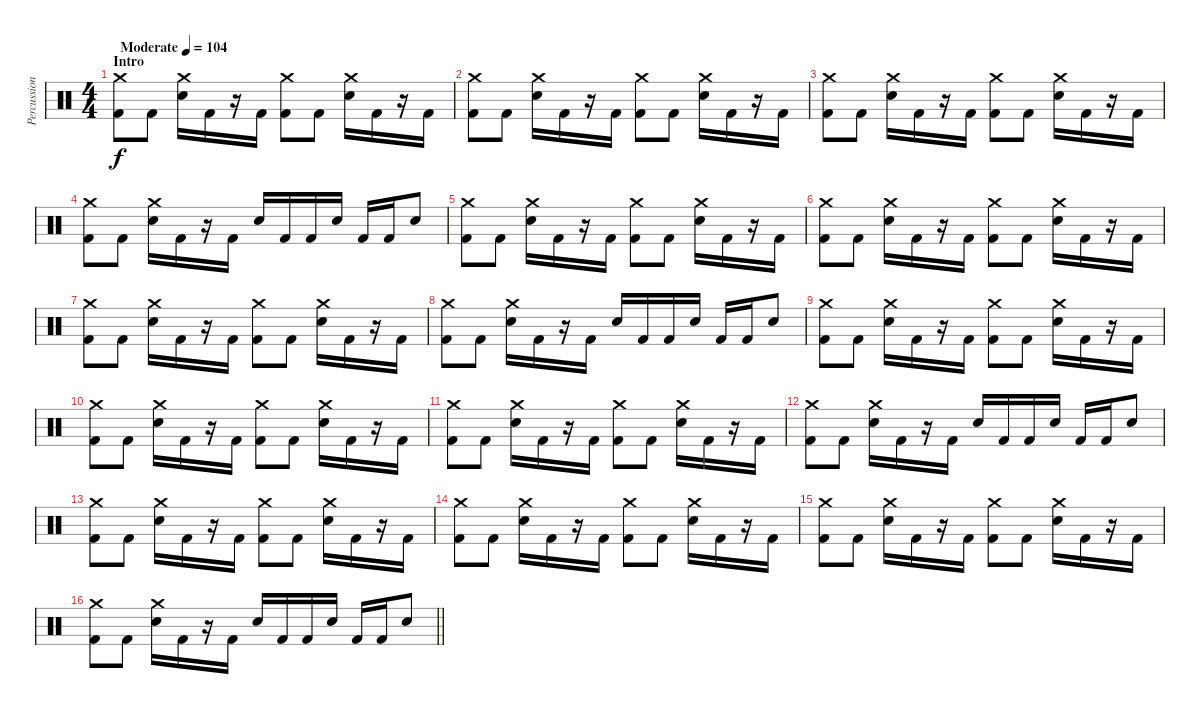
\track ("Percussioni" "Percussion") {instrument percussion}
\staff {score}
\articulation defaults
\ts (4 4)
\section ("" "Intro")
\tempo (104 "Moderate")
\clef neutral
\ks c
("Crash medium (hit)" "Kick (hit) 2").8{dy f} "Kick (hit) 2".8 ("Crash medium (hit)" "Electric Snare (hit)").16 "Kick (hit) 2".16 r.16 "Kick (hit) 2".16 ("Crash medium (hit)" "Kick (hit) 2").8 "Kick (hit) 2".8 ("Crash medium (hit)" "Electric Snare (hit)").16 "Kick (hit) 2".16 r.16 "Kick (hit) 2".16 |
("Crash medium (hit)" "Kick (hit) 2").8 "Kick (hit) 2".8 ("Crash medium (hit)" "Electric Snare (hit)").16 "Kick (hit) 2".16 r.16 "Kick (hit) 2".16 ("Crash medium (hit)" "Kick (hit) 2").8 "Kick (hit) 2".8 ("Crash medium (hit)" "Electric Snare (hit)").16 "Kick (hit) 2".16 r.16 "Kick (hit) 2".16 |
("Crash medium (hit)" "Kick (hit) 2").8 "Kick (hit) 2".8 ("Crash medium (hit)" "Electric Snare (hit)").16 "Kick (hit) 2".16 r.16 "Kick (hit) 2".16 ("Crash medium (hit)" "Kick (hit) 2").8 "Kick (hit) 2".8 ("Crash medium (hit)" "Electric Snare (hit)").16 "Kick (hit) 2".16 r.16 "Kick (hit) 2".16 |
("Crash medium (hit)" "Kick (hit) 2").8 "Kick (hit) 2".8 ("Crash medium (hit)" "Electric Snare (hit)").16 "Kick (hit) 2".16 r.16 "Kick (hit) 2".16 "Electric Snare (hit)".16 "Kick (hit) 2".16 "Kick (hit) 2".16 "Electric Snare (hit)".16 "Kick (hit) 2".16 "Kick (hit) 2".16 "Electric Snare (hit)".8 |
("Crash medium (hit)" "Kick (hit) 2").8 "Kick (hit) 2".8 ("Crash medium (hit)" "Electric Snare (hit)").16 "Kick (hit) 2".16 r.16 "Kick (hit) 2".16 ("Crash medium (hit)" "Kick (hit) 2").8 "Kick (hit) 2".8 ("Crash medium (hit)" "Electric Snare (hit)").16 "Kick (hit) 2".16 r.16 "Kick (hit) 2".16 |
("Crash medium (hit)" "Kick (hit) 2").8 "Kick (hit) 2".8 ("Crash medium (hit)" "Electric Snare (hit)").16 "Kick (hit) 2".16 r.16 "Kick (hit) 2".16 ("Crash medium (hit)" "Kick (hit) 2").8 "Kick (hit) 2".8 ("Crash medium (hit)" "Electric Snare (hit)").16 "Kick (hit) 2".16 r.16 "Kick (hit) 2".16 |
("Crash medium (hit)" "Kick (hit) 2").8 "Kick (hit) 2".8 ("Crash medium (hit)" "Electric Snare (hit)").16 "Kick (hit) 2".16 r.16 "Kick (hit) 2".16 ("Crash medium (hit)" "Kick (hit) 2").8 "Kick (hit) 2".8 ("Crash medium (hit)" "Electric Snare (hit)").16 "Kick (hit) 2".16 r.16 "Kick (hit) 2".16 |
("Crash medium (hit)" "Kick (hit) 2").8 "Kick (hit) 2".8 ("Crash medium (hit)" "Electric Snare (hit)").16 "Kick (hit) 2".16 r.16 "Kick (hit) 2".16 "Electric Snare (hit)".16 "Kick (hit) 2".16 "Kick (hit) 2".16 "Electric Snare (hit)".16 "Kick (hit) 2".16 "Kick (hit) 2".16 "Electric Snare (hit)".8 |
("Crash medium (hit)" "Kick (hit) 2").8 "Kick (hit) 2".8 ("Crash medium (hit)" "Electric Snare (hit)").16 "Kick (hit) 2".16 r.16 "Kick (hit) 2".16 ("Crash medium (hit)" "Kick (hit) 2").8 "Kick (hit) 2".8 ("Crash medium (hit)" "Electric Snare (hit)").16 "Kick (hit) 2".16 r.16 "Kick (hit) 2".16 |
("Crash medium (hit)" "Kick (hit) 2").8 "Kick (hit) 2".8 ("Crash medium (hit)" "Electric Snare (hit)").16 "Kick (hit) 2".16 r.16 "Kick (hit) 2".16 ("Crash medium (hit)" "Kick (hit) 2").8 "Kick (hit) 2".8 ("Crash medium (hit)" "Electric Snare (hit)").16 "Kick (hit) 2".16 r.16 "Kick (hit) 2".16 |
("Crash medium (hit)" "Kick (hit) 2").8 "Kick (hit) 2".8 ("Crash medium (hit)" "Electric Snare (hit)").16 "Kick (hit) 2".16 r.16 "Kick (hit) 2".16 ("Crash medium (hit)" "Kick (hit) 2").8 "Kick (hit) 2".8 ("Crash medium (hit)" "Electric Snare (hit)").16 "Kick (hit) 2".16 r.16 "Kick (hit) 2".16 |
("Crash medium (hit)" "Kick (hit) 2").8 "Kick (hit) 2".8 ("Crash medium (hit)" "Electric Snare (hit)").16 "Kick (hit) 2".16 r.16 "Kick (hit) 2".16 "Electric Snare (hit)".16 "Kick (hit) 2".16 "Kick (hit) 2".16 "Electric Snare (hit)".16 "Kick (hit) 2".16 "Kick (hit) 2".16 "Electric Snare (hit)".8 |
("Crash medium (hit)" "Kick (hit) 2").8 "Kick (hit) 2".8 ("Crash medium (hit)" "Electric Snare (hit)").16 "Kick (hit) 2".16 r.16 "Kick (hit) 2".16 ("Crash medium (hit)" "Kick (hit) 2").8 "Kick (hit) 2".8 ("Crash medium (hit)" "Electric Snare (hit)").16 "Kick (hit) 2".16 r.16 "Kick (hit) 2".16 |
("Crash medium (hit)" "Kick (hit) 2").8 "Kick (hit) 2".8 ("Crash medium (hit)" "Electric Snare (hit)").16 "Kick (hit) 2".16 r.16 "Kick (hit) 2".16 ("Crash medium (hit)" "Kick (hit) 2").8 "Kick (hit) 2".8 ("Crash medium (hit)" "Electric Snare (hit)").16 "Kick (hit) 2".16 r.16 "Kick (hit) 2".16 |
("Crash medium (hit)" "Kick (hit) 2").8 "Kick (hit) 2".8 ("Crash medium (hit)" "Electric Snare (hit)").16 "Kick (hit) 2".16 r.16 "Kick (hit) 2".16 ("Crash medium (hit)" "Kick (hit) 2").8 "Kick (hit) 2".8 ("Crash medium (hit)" "Electric Snare (hit)").16 "Kick (hit) 2".16 r.16 "Kick (hit) 2".16 |
\barLineRight lightlight
("Crash medium (hit)" "Kick (hit) 2").8 "Kick (hit) 2".8 ("Crash medium (hit)" "Electric Snare (hit)").16 "Kick (hit) 2".16 r.16 "Kick (hit) 2".16 "Electric Snare (hit)".16 "Kick (hit) 2".16 "Kick (hit) 2".16 "Electric Snare (hit)".16 "Kick (hit) 2".16 "Kick (hit) 2".16 "Electric Snare (hit)".8
